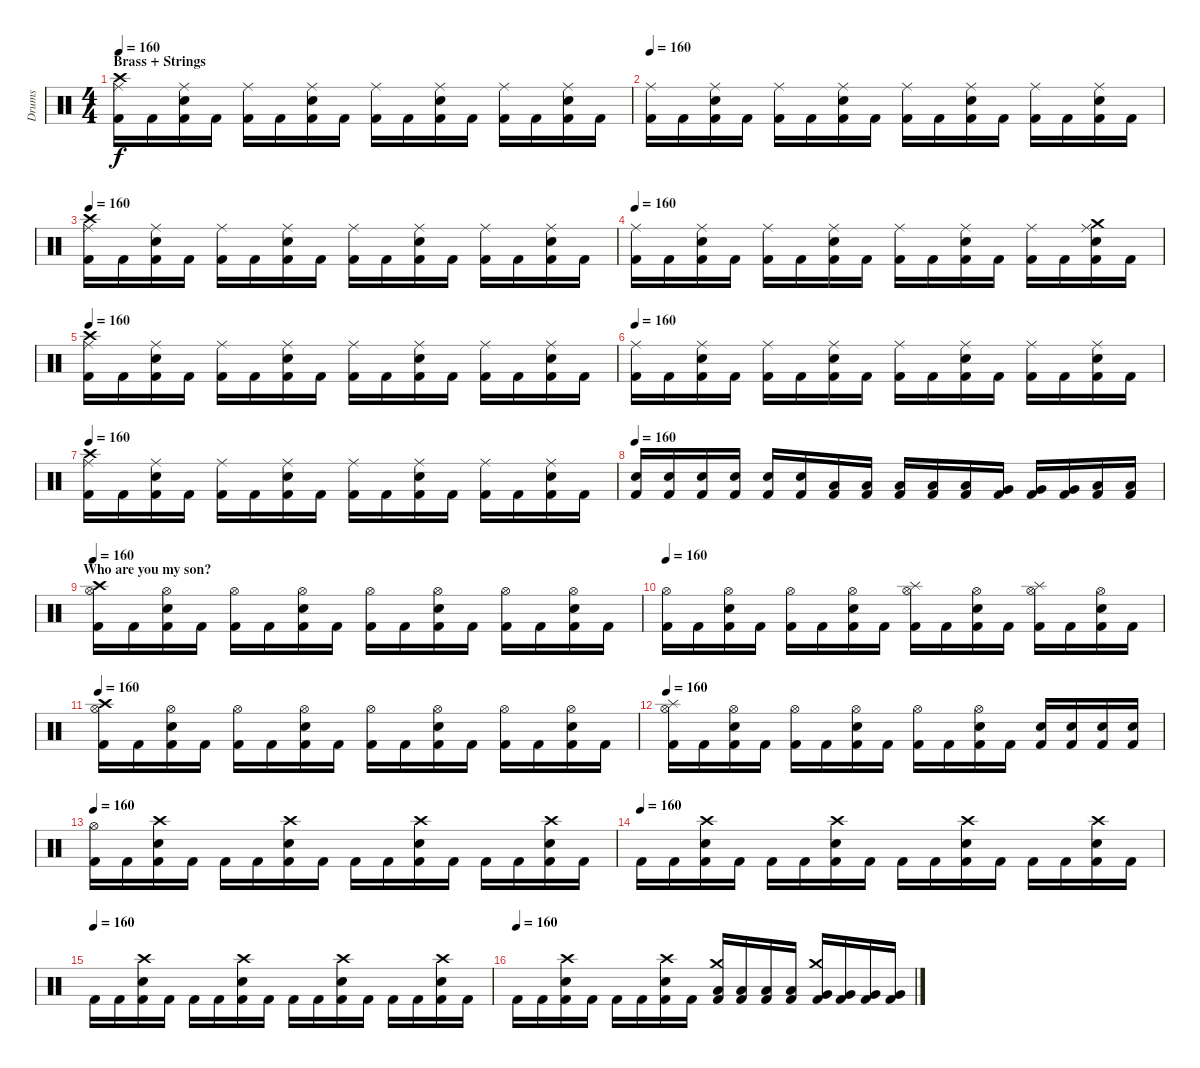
\track ("Drums" "Drums") {instrument percussion}
\staff {score}
\articulation defaults
\ts (4 4)
\section ("" "Brass + Strings")
\tempo 160
\clef neutral
\ks c
("Crash high (hit)" "Ride (middle)" "Kick (hit) 2").16{dy f} "Kick (hit) 2".16 ("Ride (middle)" "Snare (hit) 2" "Kick (hit) 2").16 "Kick (hit) 2".16 ("Ride (middle)" "Kick (hit) 2").16 "Kick (hit) 2".16 ("Ride (middle)" "Snare (hit) 2" "Kick (hit) 2").16 "Kick (hit) 2".16 ("Ride (middle)" "Kick (hit) 2").16 "Kick (hit) 2".16 ("Ride (middle)" "Snare (hit) 2" "Kick (hit) 2").16 "Kick (hit) 2".16 ("Ride (middle)" "Kick (hit) 2").16 "Kick (hit) 2".16 ("Ride (middle)" "Snare (hit) 2" "Kick (hit) 2").16 "Kick (hit) 2".16 |
\tempo 160
("Ride (middle)" "Kick (hit) 2").16 "Kick (hit) 2".16 ("Ride (middle)" "Snare (hit) 2" "Kick (hit) 2").16 "Kick (hit) 2".16 ("Ride (middle)" "Kick (hit) 2").16 "Kick (hit) 2".16 ("Ride (middle)" "Snare (hit) 2" "Kick (hit) 2").16 "Kick (hit) 2".16 ("Ride (middle)" "Kick (hit) 2").16 "Kick (hit) 2".16 ("Ride (middle)" "Snare (hit) 2" "Kick (hit) 2").16 "Kick (hit) 2".16 ("Ride (middle)" "Kick (hit) 2").16 "Kick (hit) 2".16 ("Ride (middle)" "Snare (hit) 2" "Kick (hit) 2").16 "Kick (hit) 2".16 |
\tempo 160
("Crash high (hit)" "Ride (middle)" "Kick (hit) 2").16 "Kick (hit) 2".16 ("Ride (middle)" "Snare (hit) 2" "Kick (hit) 2").16 "Kick (hit) 2".16 ("Ride (middle)" "Kick (hit) 2").16 "Kick (hit) 2".16 ("Ride (middle)" "Snare (hit) 2" "Kick (hit) 2").16 "Kick (hit) 2".16 ("Ride (middle)" "Kick (hit) 2").16 "Kick (hit) 2".16 ("Ride (middle)" "Snare (hit) 2" "Kick (hit) 2").16 "Kick (hit) 2".16 ("Ride (middle)" "Kick (hit) 2").16 "Kick (hit) 2".16 ("Ride (middle)" "Snare (hit) 2" "Kick (hit) 2").16 "Kick (hit) 2".16 |
\tempo 160
("Ride (middle)" "Kick (hit) 2").16 "Kick (hit) 2".16 ("Ride (middle)" "Snare (hit) 2" "Kick (hit) 2").16 "Kick (hit) 2".16 ("Ride (middle)" "Kick (hit) 2").16 "Kick (hit) 2".16 ("Ride (middle)" "Snare (hit) 2" "Kick (hit) 2").16 "Kick (hit) 2".16 ("Ride (middle)" "Kick (hit) 2").16 "Kick (hit) 2".16 ("Ride (middle)" "Snare (hit) 2" "Kick (hit) 2").16 "Kick (hit) 2".16 ("Ride (middle)" "Kick (hit) 2").16 "Kick (hit) 2".16 ("Crash medium (hit)" "Ride (middle)" "Snare (hit) 2" "Kick (hit) 2").16 "Kick (hit) 2".16 |
\tempo 160
("Crash high (hit)" "Ride (middle)" "Kick (hit) 2").16 "Kick (hit) 2".16 ("Ride (middle)" "Snare (hit) 2" "Kick (hit) 2").16 "Kick (hit) 2".16 ("Ride (middle)" "Kick (hit) 2").16 "Kick (hit) 2".16 ("Ride (middle)" "Snare (hit) 2" "Kick (hit) 2").16 "Kick (hit) 2".16 ("Ride (middle)" "Kick (hit) 2").16 "Kick (hit) 2".16 ("Ride (middle)" "Snare (hit) 2" "Kick (hit) 2").16 "Kick (hit) 2".16 ("Ride (middle)" "Kick (hit) 2").16 "Kick (hit) 2".16 ("Ride (middle)" "Snare (hit) 2" "Kick (hit) 2").16 "Kick (hit) 2".16 |
\tempo 160
("Ride (middle)" "Kick (hit) 2").16 "Kick (hit) 2".16 ("Ride (middle)" "Snare (hit) 2" "Kick (hit) 2").16 "Kick (hit) 2".16 ("Ride (middle)" "Kick (hit) 2").16 "Kick (hit) 2".16 ("Ride (middle)" "Snare (hit) 2" "Kick (hit) 2").16 "Kick (hit) 2".16 ("Ride (middle)" "Kick (hit) 2").16 "Kick (hit) 2".16 ("Ride (middle)" "Snare (hit) 2" "Kick (hit) 2").16 "Kick (hit) 2".16 ("Ride (middle)" "Kick (hit) 2").16 "Kick (hit) 2".16 ("Ride (middle)" "Snare (hit) 2" "Kick (hit) 2").16 "Kick (hit) 2".16 |
\tempo 160
("Crash high (hit)" "Ride (middle)" "Kick (hit) 2").16 "Kick (hit) 2".16 ("Ride (middle)" "Snare (hit) 2" "Kick (hit) 2").16 "Kick (hit) 2".16 ("Ride (middle)" "Kick (hit) 2").16 "Kick (hit) 2".16 ("Ride (middle)" "Snare (hit) 2" "Kick (hit) 2").16 "Kick (hit) 2".16 ("Ride (middle)" "Kick (hit) 2").16 "Kick (hit) 2".16 ("Ride (middle)" "Snare (hit) 2" "Kick (hit) 2").16 "Kick (hit) 2".16 ("Ride (middle)" "Kick (hit) 2").16 "Kick (hit) 2".16 ("Ride (middle)" "Snare (hit) 2" "Kick (hit) 2").16 "Kick (hit) 2".16 |
\tempo 160
("Snare (hit) 2" "Kick (hit) 2").16 ("Snare (hit) 2" "Kick (hit) 2").16 ("Snare (hit) 2" "Kick (hit) 2").16 ("Snare (hit) 2" "Kick (hit) 2").16 ("Snare (hit) 2" "Kick (hit) 2").16 ("Snare (hit) 2" "Kick (hit) 2").16 ("Low Tom (hit)" "Kick (hit) 2").16 ("Low Tom (hit)" "Kick (hit) 2").16 ("Low Tom (hit)" "Kick (hit) 2").16 ("Low Tom (hit)" "Kick (hit) 2").16 ("Low Tom (hit)" "Kick (hit) 2").16 ("Very Low Tom (hit)" "Kick (hit) 2").16 ("Very Low Tom (hit)" "Kick (hit) 2").16 ("Very Low Tom (hit)" "Kick (hit) 2").16 ("Low Floor Tom (hit)" "Kick (hit) 2").16 ("Low Floor Tom (hit)" "Kick (hit) 2").16 |
\section ("" "Who are you my son?")
\tempo 160
("Crash high (hit)" "Hi-Hat (open)" "Kick (hit) 2").16 "Kick (hit) 2".16 ("Hi-Hat (open)" "Snare (hit) 2" "Kick (hit) 2").16 "Kick (hit) 2".16 ("Hi-Hat (open)" "Kick (hit) 2").16 "Kick (hit) 2".16 ("Hi-Hat (open)" "Snare (hit) 2" "Kick (hit) 2").16 "Kick (hit) 2".16 ("Hi-Hat (open)" "Kick (hit) 2").16 "Kick (hit) 2".16 ("Hi-Hat (open)" "Snare (hit) 2" "Kick (hit) 2").16 "Kick (hit) 2".16 ("Hi-Hat (open)" "Kick (hit) 2").16 "Kick (hit) 2".16 ("Hi-Hat (open)" "Snare (hit) 2" "Kick (hit) 2").16 "Kick (hit) 2".16 |
\tempo 160
("Hi-Hat (open)" "Kick (hit) 2").16 "Kick (hit) 2".16 ("Hi-Hat (open)" "Snare (hit) 2" "Kick (hit) 2").16 "Kick (hit) 2".16 ("Hi-Hat (open)" "Kick (hit) 2").16 "Kick (hit) 2".16 ("Hi-Hat (open)" "Snare (hit) 2" "Kick (hit) 2").16 "Kick (hit) 2".16 ("Splash (hit)" "Hi-Hat (open)" "Kick (hit) 2").16 "Kick (hit) 2".16 ("Hi-Hat (open)" "Snare (hit) 2" "Kick (hit) 2").16 "Kick (hit) 2".16 ("Splash (hit)" "Hi-Hat (open)" "Kick (hit) 2").16 "Kick (hit) 2".16 ("Hi-Hat (open)" "Snare (hit) 2" "Kick (hit) 2").16 "Kick (hit) 2".16 |
\tempo 160
("Crash high (hit)" "Hi-Hat (open)" "Kick (hit) 2").16 "Kick (hit) 2".16 ("Hi-Hat (open)" "Snare (hit) 2" "Kick (hit) 2").16 "Kick (hit) 2".16 ("Hi-Hat (open)" "Kick (hit) 2").16 "Kick (hit) 2".16 ("Hi-Hat (open)" "Snare (hit) 2" "Kick (hit) 2").16 "Kick (hit) 2".16 ("Hi-Hat (open)" "Kick (hit) 2").16 "Kick (hit) 2".16 ("Hi-Hat (open)" "Snare (hit) 2" "Kick (hit) 2").16 "Kick (hit) 2".16 ("Hi-Hat (open)" "Kick (hit) 2").16 "Kick (hit) 2".16 ("Hi-Hat (open)" "Snare (hit) 2" "Kick (hit) 2").16 "Kick (hit) 2".16 |
\tempo 160
("Splash (hit)" "Hi-Hat (open)" "Kick (hit) 2").16 "Kick (hit) 2".16 ("Hi-Hat (open)" "Snare (hit) 2" "Kick (hit) 2").16 "Kick (hit) 2".16 ("Hi-Hat (open)" "Kick (hit) 2").16 "Kick (hit) 2".16 ("Hi-Hat (open)" "Snare (hit) 2" "Kick (hit) 2").16 "Kick (hit) 2".16 ("Hi-Hat (open)" "Kick (hit) 2").16 "Kick (hit) 2".16 ("Hi-Hat (open)" "Snare (hit) 2" "Kick (hit) 2").16 "Kick (hit) 2".16 ("Snare (hit) 2" "Kick (hit) 2").16 ("Snare (hit) 2" "Kick (hit) 2").16 ("Snare (hit) 2" "Kick (hit) 2").16 ("Snare (hit) 2" "Kick (hit) 2").16 |
\tempo 160
("Hi-Hat (open)" "Kick (hit) 2").16 "Kick (hit) 2".16 ("Crash high (hit)" "Snare (hit) 2" "Kick (hit) 2").16 "Kick (hit) 2".16 "Kick (hit) 2".16 "Kick (hit) 2".16 ("Crash high (hit)" "Snare (hit) 2" "Kick (hit) 2").16 "Kick (hit) 2".16 "Kick (hit) 2".16 "Kick (hit) 2".16 ("Crash high (hit)" "Snare (hit) 2" "Kick (hit) 2").16 "Kick (hit) 2".16 "Kick (hit) 2".16 "Kick (hit) 2".16 ("Crash high (hit)" "Snare (hit) 2" "Kick (hit) 2").16 "Kick (hit) 2".16 |
\tempo (160)
"Kick (hit) 2".16 "Kick (hit) 2".16 ("Crash high (hit)" "Snare (hit) 2" "Kick (hit) 2").16 "Kick (hit) 2".16 "Kick (hit) 2".16 "Kick (hit) 2".16 ("Crash high (hit)" "Snare (hit) 2" "Kick (hit) 2").16 "Kick (hit) 2".16 "Kick (hit) 2".16 "Kick (hit) 2".16 ("Crash high (hit)" "Snare (hit) 2" "Kick (hit) 2").16 "Kick (hit) 2".16 "Kick (hit) 2".16 "Kick (hit) 2".16 ("Crash high (hit)" "Snare (hit) 2" "Kick (hit) 2").16 "Kick (hit) 2".16 |
\tempo (160)
"Kick (hit) 2".16 "Kick (hit) 2".16 ("Crash high (hit)" "Snare (hit) 2" "Kick (hit) 2").16 "Kick (hit) 2".16 "Kick (hit) 2".16 "Kick (hit) 2".16 ("Crash high (hit)" "Snare (hit) 2" "Kick (hit) 2").16 "Kick (hit) 2".16 "Kick (hit) 2".16 "Kick (hit) 2".16 ("Crash high (hit)" "Snare (hit) 2" "Kick (hit) 2").16 "Kick (hit) 2".16 "Kick (hit) 2".16 "Kick (hit) 2".16 ("Crash high (hit)" "Snare (hit) 2" "Kick (hit) 2").16 "Kick (hit) 2".16 |
\tempo (160)
"Kick (hit) 2".16 "Kick (hit) 2".16 ("Crash high (hit)" "Snare (hit) 2" "Kick (hit) 2").16 "Kick (hit) 2".16 "Kick (hit) 2".16 "Kick (hit) 2".16 ("Crash high (hit)" "Snare (hit) 2" "Kick (hit) 2").16 "Kick (hit) 2".16 ("Crash medium (hit)" "Low Tom (hit)" "Kick (hit) 2").16 ("Low Tom (hit)" "Kick (hit) 2").16 ("Low Tom (hit)" "Kick (hit) 2").16 ("Low Tom (hit)" "Kick (hit) 2").16 ("Crash medium (hit)" "Very Low Tom (hit)" "Kick (hit) 2").16 ("Very Low Tom (hit)" "Kick (hit) 2").16 ("Very Low Tom (hit)" "Kick (hit) 2").16 ("Very Low Tom (hit)" "Kick (hit) 2").16
